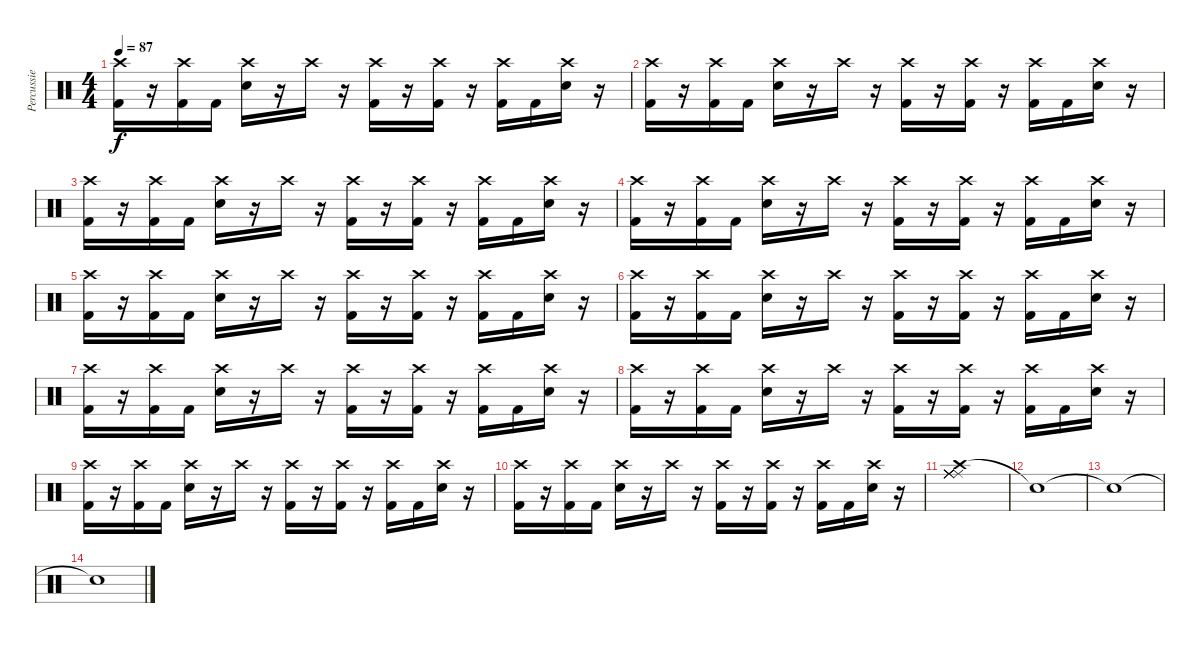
\track ("Percussie" "Percussie") {instrument percussion}
\staff {score}
\articulation defaults
\ts (4 4)
\tempo 87
\clef neutral
\ks c
("Kick (hit) 2" "Crash high (hit)").16{dy f} r.16 ("Kick (hit) 2" "Crash high (hit)").16 "Kick (hit) 2".16 ("Snare (hit) 2" "Crash high (hit)").16 r.16 "Crash high (hit)".16 r.16 ("Kick (hit) 2" "Crash high (hit)").16 r.16 ("Kick (hit) 2" "Crash high (hit)").16 r.16 ("Kick (hit) 2" "Crash high (hit)").16 "Kick (hit) 2".16 ("Snare (hit) 2" "Crash high (hit)").16 r.16 |
("Kick (hit) 2" "Crash high (hit)").16 r.16 ("Kick (hit) 2" "Crash high (hit)").16 "Kick (hit) 2".16 ("Snare (hit) 2" "Crash high (hit)").16 r.16 "Crash high (hit)".16 r.16 ("Kick (hit) 2" "Crash high (hit)").16 r.16 ("Kick (hit) 2" "Crash high (hit)").16 r.16 ("Kick (hit) 2" "Crash high (hit)").16 "Kick (hit) 2".16 ("Snare (hit) 2" "Crash high (hit)").16 r.16 |
("Kick (hit) 2" "Crash high (hit)").16 r.16 ("Kick (hit) 2" "Crash high (hit)").16 "Kick (hit) 2".16 ("Snare (hit) 2" "Crash high (hit)").16 r.16 "Crash high (hit)".16 r.16 ("Kick (hit) 2" "Crash high (hit)").16 r.16 ("Kick (hit) 2" "Crash high (hit)").16 r.16 ("Kick (hit) 2" "Crash high (hit)").16 "Kick (hit) 2".16 ("Snare (hit) 2" "Crash high (hit)").16 r.16 |
("Kick (hit) 2" "Crash high (hit)").16 r.16 ("Kick (hit) 2" "Crash high (hit)").16 "Kick (hit) 2".16 ("Snare (hit) 2" "Crash high (hit)").16 r.16 "Crash high (hit)".16 r.16 ("Kick (hit) 2" "Crash high (hit)").16 r.16 ("Kick (hit) 2" "Crash high (hit)").16 r.16 ("Kick (hit) 2" "Crash high (hit)").16 "Kick (hit) 2".16 ("Snare (hit) 2" "Crash high (hit)").16 r.16 |
("Kick (hit) 2" "Crash high (hit)").16 r.16 ("Kick (hit) 2" "Crash high (hit)").16 "Kick (hit) 2".16 ("Snare (hit) 2" "Crash high (hit)").16 r.16 "Crash high (hit)".16 r.16 ("Kick (hit) 2" "Crash high (hit)").16 r.16 ("Kick (hit) 2" "Crash high (hit)").16 r.16 ("Kick (hit) 2" "Crash high (hit)").16 "Kick (hit) 2".16 ("Snare (hit) 2" "Crash high (hit)").16 r.16 |
("Kick (hit) 2" "Crash high (hit)").16 r.16 ("Kick (hit) 2" "Crash high (hit)").16 "Kick (hit) 2".16 ("Snare (hit) 2" "Crash high (hit)").16 r.16 "Crash high (hit)".16 r.16 ("Kick (hit) 2" "Crash high (hit)").16 r.16 ("Kick (hit) 2" "Crash high (hit)").16 r.16 ("Kick (hit) 2" "Crash high (hit)").16 "Kick (hit) 2".16 ("Snare (hit) 2" "Crash high (hit)").16 r.16 |
("Kick (hit) 2" "Crash high (hit)").16 r.16 ("Kick (hit) 2" "Crash high (hit)").16 "Kick (hit) 2".16 ("Snare (hit) 2" "Crash high (hit)").16 r.16 "Crash high (hit)".16 r.16 ("Kick (hit) 2" "Crash high (hit)").16 r.16 ("Kick (hit) 2" "Crash high (hit)").16 r.16 ("Kick (hit) 2" "Crash high (hit)").16 "Kick (hit) 2".16 ("Snare (hit) 2" "Crash high (hit)").16 r.16 |
("Kick (hit) 2" "Crash high (hit)").16 r.16 ("Kick (hit) 2" "Crash high (hit)").16 "Kick (hit) 2".16 ("Snare (hit) 2" "Crash high (hit)").16 r.16 "Crash high (hit)".16 r.16 ("Kick (hit) 2" "Crash high (hit)").16 r.16 ("Kick (hit) 2" "Crash high (hit)").16 r.16 ("Kick (hit) 2" "Crash high (hit)").16 "Kick (hit) 2".16 ("Snare (hit) 2" "Crash high (hit)").16 r.16 |
("Kick (hit) 2" "Crash high (hit)").16 r.16 ("Kick (hit) 2" "Crash high (hit)").16 "Kick (hit) 2".16 ("Snare (hit) 2" "Crash high (hit)").16 r.16 "Crash high (hit)".16 r.16 ("Kick (hit) 2" "Crash high (hit)").16 r.16 ("Kick (hit) 2" "Crash high (hit)").16 r.16 ("Kick (hit) 2" "Crash high (hit)").16 "Kick (hit) 2".16 ("Snare (hit) 2" "Crash high (hit)").16 r.16 |
("Kick (hit) 2" "Crash high (hit)").16 r.16 ("Kick (hit) 2" "Crash high (hit)").16 "Kick (hit) 2".16 ("Snare (hit) 2" "Crash high (hit)").16 r.16 "Crash high (hit)".16 r.16 ("Kick (hit) 2" "Crash high (hit)").16 r.16 ("Kick (hit) 2" "Crash high (hit)").16 r.16 ("Kick (hit) 2" "Crash high (hit)").16 "Kick (hit) 2".16 ("Snare (hit) 2" "Crash high (hit)").16 r.16 |
("Crash high (hit)" "Ride (middle)" "Ride (middle)" "Ride (middle)" "Ride (middle)" "Ride (middle)").1 |
"Snare (hit)"{t}.1 |
"Snare (hit)"{t}.1 |
"Snare (hit)"{t}.1
